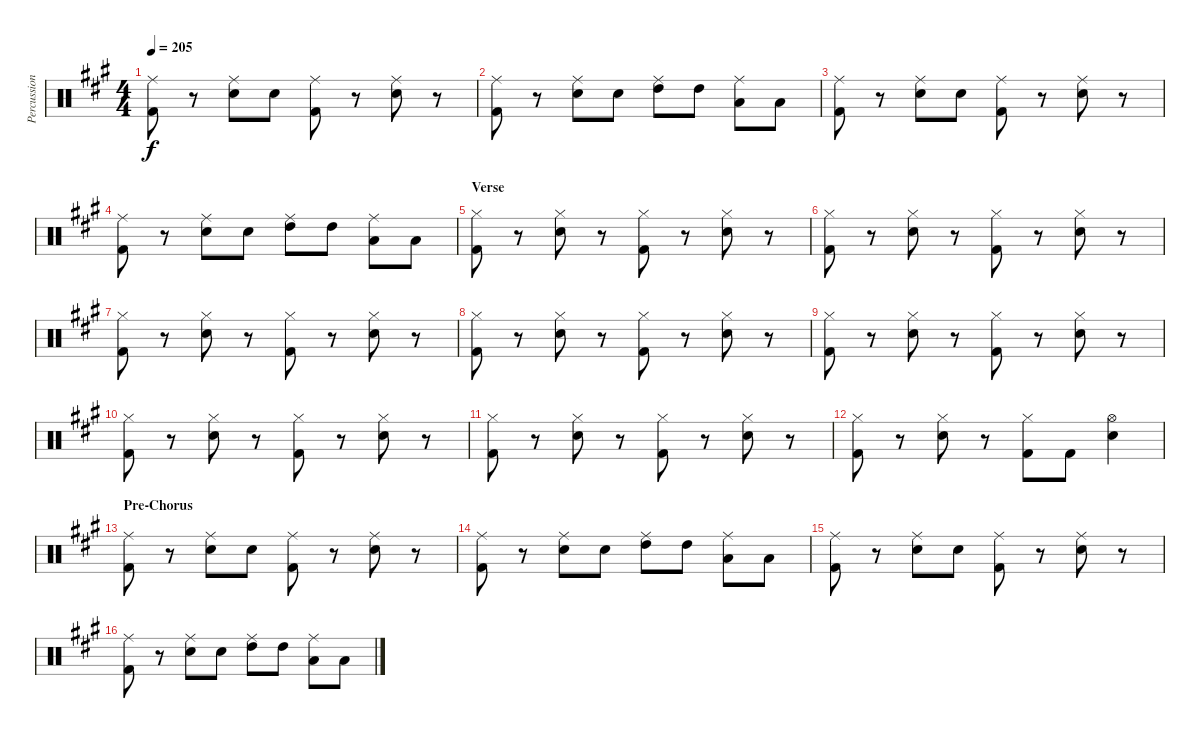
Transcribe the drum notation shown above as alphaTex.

\track ("Percussion" "Percussion") {instrument percussion}
\staff {score}
\articulation defaults
\ts (4 4)
\tempo 205
\clef neutral
\ks a
("Ride (middle)" "Kick (hit) 2").8{dy f} r.8 ("Ride (middle)" "Snare (hit) 2").8 "Snare (hit) 2".8 ("Ride (middle)" "Kick (hit) 2").8 r.8 ("Ride (middle)" "Snare (hit) 2").8 r.8 |
("Ride (middle)" "Kick (hit) 2").8 r.8 ("Ride (middle)" "Snare (hit) 2").8 "Snare (hit) 2".8 ("Ride (middle)" "High Tom (hit)").8 "High Tom (hit)".8 ("Ride (middle)" "Low Tom (hit)").8 "Low Tom (hit)".8 |
("Ride (middle)" "Kick (hit) 2").8 r.8 ("Ride (middle)" "Snare (hit) 2").8 "Snare (hit) 2".8 ("Ride (middle)" "Kick (hit) 2").8 r.8 ("Ride (middle)" "Snare (hit) 2").8 r.8 |
("Ride (middle)" "Kick (hit) 2").8 r.8 ("Ride (middle)" "Snare (hit) 2").8 "Snare (hit) 2".8 ("Ride (middle)" "High Tom (hit)").8 "High Tom (hit)".8 ("Ride (middle)" "Low Tom (hit)").8 "Low Tom (hit)".8 |
\section ("" "Verse")
("Hi-Hat (closed)" "Kick (hit) 2").8 r.8 ("Hi-Hat (closed)" "Snare (hit) 2").8 r.8 ("Hi-Hat (closed)" "Kick (hit) 2").8 r.8 ("Hi-Hat (closed)" "Snare (hit) 2").8 r.8 |
("Hi-Hat (closed)" "Kick (hit) 2").8 r.8 ("Hi-Hat (closed)" "Snare (hit) 2").8 r.8 ("Hi-Hat (closed)" "Kick (hit) 2").8 r.8 ("Hi-Hat (closed)" "Snare (hit) 2").8 r.8 |
("Hi-Hat (closed)" "Kick (hit) 2").8 r.8 ("Hi-Hat (closed)" "Snare (hit) 2").8 r.8 ("Hi-Hat (closed)" "Kick (hit) 2").8 r.8 ("Hi-Hat (closed)" "Snare (hit) 2").8 r.8 |
("Hi-Hat (closed)" "Kick (hit) 2").8 r.8 ("Hi-Hat (closed)" "Snare (hit) 2").8 r.8 ("Hi-Hat (closed)" "Kick (hit) 2").8 r.8 ("Hi-Hat (closed)" "Snare (hit) 2").8 r.8 |
("Hi-Hat (closed)" "Kick (hit) 2").8 r.8 ("Hi-Hat (closed)" "Snare (hit) 2").8 r.8 ("Hi-Hat (closed)" "Kick (hit) 2").8 r.8 ("Hi-Hat (closed)" "Snare (hit) 2").8 r.8 |
("Hi-Hat (closed)" "Kick (hit) 2").8 r.8 ("Hi-Hat (closed)" "Snare (hit) 2").8 r.8 ("Hi-Hat (closed)" "Kick (hit) 2").8 r.8 ("Hi-Hat (closed)" "Snare (hit) 2").8 r.8 |
("Hi-Hat (closed)" "Kick (hit) 2").8 r.8 ("Hi-Hat (closed)" "Snare (hit) 2").8 r.8 ("Hi-Hat (closed)" "Kick (hit) 2").8 r.8 ("Hi-Hat (closed)" "Snare (hit) 2").8 r.8 |
("Hi-Hat (closed)" "Kick (hit) 2").8 r.8 ("Hi-Hat (closed)" "Snare (hit) 2").8 r.8 ("Hi-Hat (closed)" "Kick (hit) 2").8 "Kick (hit) 2".8 ("Hi-Hat (open)" "Snare (hit) 2").4 |
\section ("" "Pre-Chorus")
("Ride (middle)" "Kick (hit) 2").8 r.8 ("Ride (middle)" "Snare (hit) 2").8 "Snare (hit) 2".8 ("Ride (middle)" "Kick (hit) 2").8 r.8 ("Ride (middle)" "Snare (hit) 2").8 r.8 |
("Ride (middle)" "Kick (hit) 2").8 r.8 ("Ride (middle)" "Snare (hit) 2").8 "Snare (hit) 2".8 ("Ride (middle)" "High Tom (hit)").8 "High Tom (hit)".8 ("Ride (middle)" "Low Tom (hit)").8 "Low Tom (hit)".8 |
("Ride (middle)" "Kick (hit) 2").8 r.8 ("Ride (middle)" "Snare (hit) 2").8 "Snare (hit) 2".8 ("Ride (middle)" "Kick (hit) 2").8 r.8 ("Ride (middle)" "Snare (hit) 2").8 r.8 |
("Ride (middle)" "Kick (hit) 2").8 r.8 ("Ride (middle)" "Snare (hit) 2").8 "Snare (hit) 2".8 ("Ride (middle)" "High Tom (hit)").8 "High Tom (hit)".8 ("Ride (middle)" "Low Tom (hit)").8 "Low Tom (hit)".8
